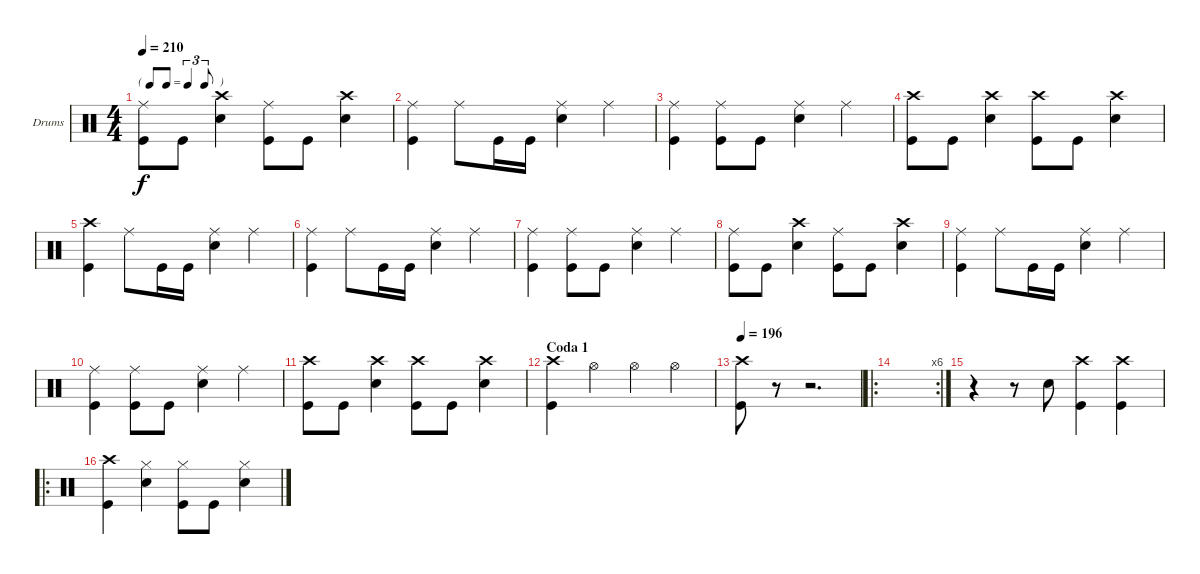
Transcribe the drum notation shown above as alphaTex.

\bracketExtendMode groupsimilarinstruments
\firstSystemTrackNameOrientation horizontal
\otherSystemsTrackNameOrientation horizontal
\track ("Drums" "Drums") {instrument percussion}
\staff {score}
\articulation defaults
\ts (4 4)
\tf triplet8th
\tempo 210
\clef neutral
\ks c
("Ride (middle)" "Kick (hit)").8{dy f} "Kick (hit)".8 ("Snare (hit) 2" "Crash high (hit)").4 ("Ride (middle)" "Kick (hit)").8 "Kick (hit)".8 ("Snare (hit) 2" "Crash high (hit)").4 |
("Kick (hit)" "Ride (middle)").4 "Ride (middle)".8 "Kick (hit)".16 "Kick (hit)".16 ("Snare (hit) 2" "Ride (middle)").4 "Ride (middle)".4 |
("Kick (hit)" "Ride (middle)").4 ("Ride (middle)" "Kick (hit)").8 "Kick (hit)".8 ("Snare (hit) 2" "Ride (middle)").4 "Ride (middle)".4 |
("Kick (hit)" "Crash high (hit)").8 "Kick (hit)".8 ("Snare (hit) 2" "Crash high (hit)").4 ("Kick (hit)" "Crash high (hit)").8 "Kick (hit)".8 ("Snare (hit) 2" "Crash high (hit)").4 |
("Kick (hit)" "Crash high (hit)").4 "Ride (middle)".8 "Kick (hit)".16 "Kick (hit)".16 ("Snare (hit) 2" "Ride (middle)").4 "Ride (middle)".4 |
("Kick (hit)" "Ride (middle)").4 "Ride (middle)".8 "Kick (hit)".16 "Kick (hit)".16 ("Snare (hit) 2" "Ride (middle)").4 "Ride (middle)".4 |
("Kick (hit)" "Ride (middle)").4 ("Ride (middle)" "Kick (hit)").8 "Kick (hit)".8 ("Snare (hit) 2" "Ride (middle)").4 "Ride (middle)".4 |
("Ride (middle)" "Kick (hit)").8 "Kick (hit)".8 ("Snare (hit) 2" "Crash high (hit)").4 ("Ride (middle)" "Kick (hit)").8 "Kick (hit)".8 ("Snare (hit) 2" "Crash high (hit)").4 |
("Ride (middle)" "Kick (hit)").4 "Ride (middle)".8 "Kick (hit)".16 "Kick (hit)".16 ("Ride (middle)" "Snare (hit) 2").4 "Ride (middle)".4 |
("Kick (hit)" "Ride (middle)").4 ("Ride (middle)" "Kick (hit)").8 "Kick (hit)".8 ("Snare (hit) 2" "Ride (middle)").4 "Ride (middle)".4 |
("Kick (hit)" "Crash high (hit)").8 "Kick (hit)".8 ("Snare (hit) 2" "Crash high (hit)").4 ("Kick (hit)" "Crash high (hit)").8 "Kick (hit)".8 ("Snare (hit) 2" "Crash high (hit)").4 |
\section ("" "Coda 1")
("Kick (hit)" "Crash high (hit)").4 "Hi-Hat (open)".4 "Hi-Hat (open)".4 "Hi-Hat (open)".4 |
\tempo 196
("Kick (hit)" "Crash high (hit)").8 r.8 r.2{d} |
\ro
\rc 6
|
r.4 r.8 "Snare (hit) 2".8 ("Kick (hit)" "Crash high (hit)").4 ("Kick (hit)" "Crash high (hit)").4 |
\ro
("Kick (hit)" "Crash high (hit)").4 ("Hi-Hat (closed)" "Snare (hit) 2").4 ("Kick (hit)" "Hi-Hat (closed)").8 "Kick (hit)".8 ("Snare (hit) 2" "Hi-Hat (closed)").4
